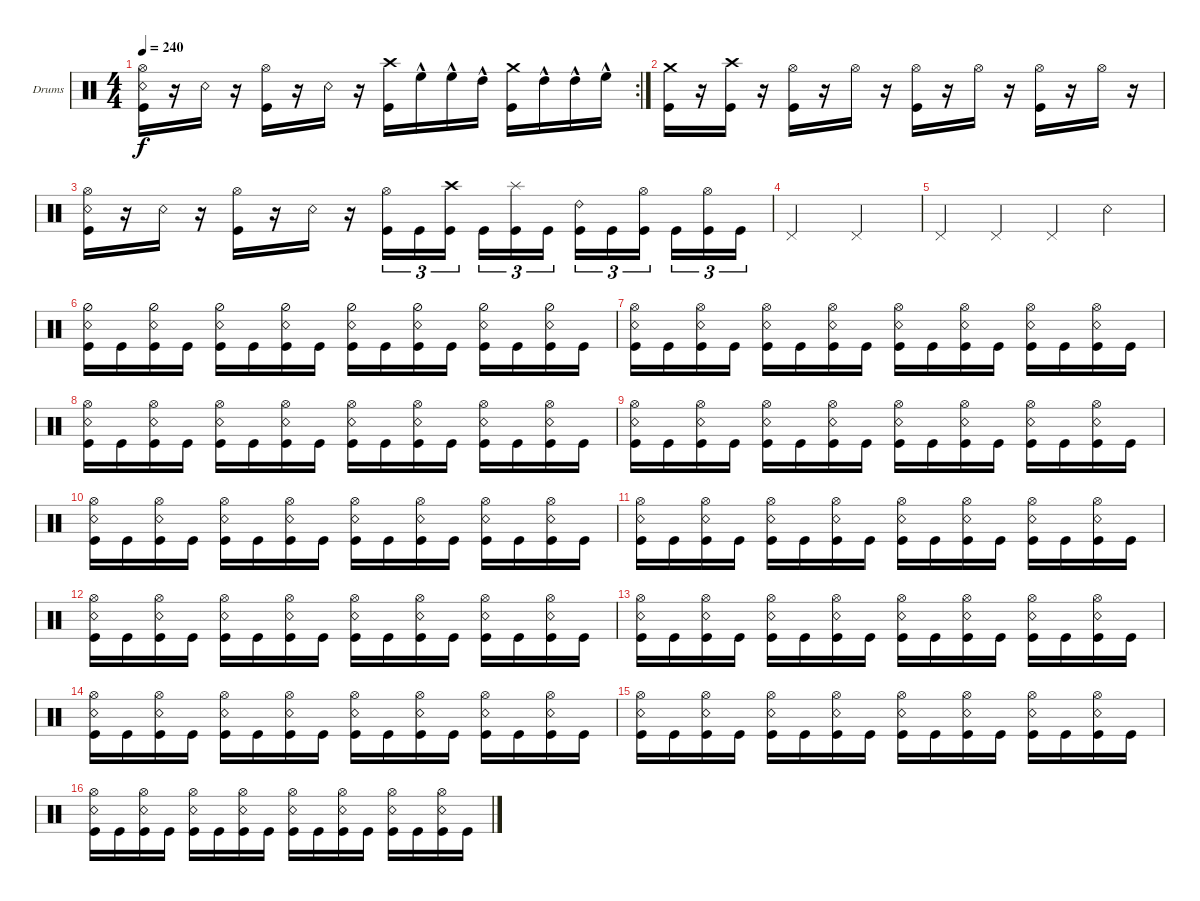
\bracketExtendMode groupsimilarinstruments
\firstSystemTrackNameOrientation horizontal
\otherSystemsTrackNameOrientation horizontal
\track ("Drumkit" "Drums") {instrument percussion}
\staff {score}
\articulation defaults
\rc 2
\ts (4 4)
\tempo 240
\clef neutral
\ks c
("Hi-Hat (open)" "Snare (rim shot)" "Kick (hit)").16{dy f} r.16 "Snare (rim shot)".16 r.16 ("Hi-Hat (open)" "Kick (hit)").16 r.16 "Snare (rim shot)".16 r.16 ("Crash high (hit)" "Kick (hit)").16 "High Floor Tom (hit)"{hac}.16 "High Floor Tom (hit)"{hac}.16 "High Tom (hit)"{hac}.16 ("Crash medium (hit)" "Kick (hit)").16 "High Tom (hit)"{hac}.16 "High Tom (hit)"{hac}.16 "High Floor Tom (hit)"{hac}.16 |
("Crash medium (hit)" "Kick (hit)").16 r.16 ("Crash high (hit)" "Kick (hit)").16 r.16 ("Hi-Hat (open)" "Kick (hit)").16 r.16 "Hi-Hat (open)".16 r.16 ("Hi-Hat (open)" "Kick (hit)").16 r.16 "Hi-Hat (open)".16 r.16 ("Hi-Hat (open)" "Kick (hit)").16 r.16 "Hi-Hat (open)".16 r.16 |
("Hi-Hat (open)" "Snare (rim shot)" "Kick (hit)").16 r.16 "Snare (rim shot)".16 r.16 ("Hi-Hat (open)" "Kick (hit)").16 r.16 "Snare (rim shot)".16 r.16 ("Kick (hit)" "Hi-Hat (open)").16{tu (3 2)} "Kick (hit)".16{tu (3 2)} ("Kick (hit)" "Crash high (hit)").16{tu (3 2)} "Kick (hit)".16{tu (3 2)} ("Kick (hit)" "Splash (hit)").16{tu (3 2)} "Kick (hit)".16{tu (3 2)} ("Kick (hit)" "Ride (bell) 2").16{tu (3 2)} "Kick (hit)".16{tu (3 2)} ("Kick (hit)" "Hi-Hat (open)").16{tu (3 2)} "Kick (hit)".16{tu (3 2)} ("Kick (hit)" "Hi-Hat (open)").16{tu (3 2)} "Kick (hit)".16{tu (3 2)} |
"Pedal Hi-Hat (hit)".2 "Pedal Hi-Hat (hit)".2 |
"Pedal Hi-Hat (hit)".4 "Pedal Hi-Hat (hit)".4 "Pedal Hi-Hat (hit)".4 "Snare (rim shot)".4 |
("Kick (hit)" "Snare (rim shot)" "Hi-Hat (half)").16 "Kick (hit)".16 ("Kick (hit)" "Snare (rim shot)" "Hi-Hat (half)").16 "Kick (hit)".16 ("Kick (hit)" "Snare (rim shot)" "Hi-Hat (half)").16 "Kick (hit)".16 ("Kick (hit)" "Snare (rim shot)" "Hi-Hat (half)").16 "Kick (hit)".16 ("Kick (hit)" "Snare (rim shot)" "Hi-Hat (half)").16 "Kick (hit)".16 ("Kick (hit)" "Snare (rim shot)" "Hi-Hat (half)").16 "Kick (hit)".16 ("Kick (hit)" "Snare (rim shot)" "Hi-Hat (half)").16 "Kick (hit)".16 ("Kick (hit)" "Snare (rim shot)" "Hi-Hat (half)").16 "Kick (hit)".16 |
("Kick (hit)" "Snare (rim shot)" "Hi-Hat (open)").16 "Kick (hit)".16 ("Kick (hit)" "Snare (rim shot)" "Hi-Hat (open)").16 "Kick (hit)".16 ("Kick (hit)" "Snare (rim shot)" "Hi-Hat (open)").16 "Kick (hit)".16 ("Kick (hit)" "Snare (rim shot)" "Hi-Hat (open)").16 "Kick (hit)".16 ("Kick (hit)" "Snare (rim shot)" "Hi-Hat (open)").16 "Kick (hit)".16 ("Kick (hit)" "Snare (rim shot)" "Hi-Hat (open)").16 "Kick (hit)".16 ("Kick (hit)" "Snare (rim shot)" "Hi-Hat (open)").16 "Kick (hit)".16 ("Kick (hit)" "Snare (rim shot)" "Hi-Hat (open)").16 "Kick (hit)".16 |
("Kick (hit)" "Snare (rim shot)" "Hi-Hat (open)").16 "Kick (hit)".16 ("Kick (hit)" "Snare (rim shot)" "Hi-Hat (open)").16 "Kick (hit)".16 ("Kick (hit)" "Snare (rim shot)" "Hi-Hat (open)").16 "Kick (hit)".16 ("Kick (hit)" "Snare (rim shot)" "Hi-Hat (open)").16 "Kick (hit)".16 ("Kick (hit)" "Snare (rim shot)" "Hi-Hat (open)").16 "Kick (hit)".16 ("Kick (hit)" "Snare (rim shot)" "Hi-Hat (open)").16 "Kick (hit)".16 ("Kick (hit)" "Snare (rim shot)" "Hi-Hat (open)").16 "Kick (hit)".16 ("Kick (hit)" "Snare (rim shot)" "Hi-Hat (open)").16 "Kick (hit)".16 |
("Kick (hit)" "Snare (rim shot)" "Hi-Hat (open)").16 "Kick (hit)".16 ("Kick (hit)" "Snare (rim shot)" "Hi-Hat (open)").16 "Kick (hit)".16 ("Kick (hit)" "Snare (rim shot)" "Hi-Hat (open)").16 "Kick (hit)".16 ("Kick (hit)" "Snare (rim shot)" "Hi-Hat (open)").16 "Kick (hit)".16 ("Kick (hit)" "Snare (rim shot)" "Hi-Hat (open)").16 "Kick (hit)".16 ("Kick (hit)" "Snare (rim shot)" "Hi-Hat (open)").16 "Kick (hit)".16 ("Kick (hit)" "Snare (rim shot)" "Hi-Hat (open)").16 "Kick (hit)".16 ("Kick (hit)" "Snare (rim shot)" "Hi-Hat (open)").16 "Kick (hit)".16 |
("Kick (hit)" "Snare (rim shot)" "Hi-Hat (open)").16 "Kick (hit)".16 ("Kick (hit)" "Snare (rim shot)" "Hi-Hat (open)").16 "Kick (hit)".16 ("Kick (hit)" "Snare (rim shot)" "Hi-Hat (open)").16 "Kick (hit)".16 ("Kick (hit)" "Snare (rim shot)" "Hi-Hat (open)").16 "Kick (hit)".16 ("Kick (hit)" "Snare (rim shot)" "Hi-Hat (open)").16 "Kick (hit)".16 ("Kick (hit)" "Snare (rim shot)" "Hi-Hat (open)").16 "Kick (hit)".16 ("Kick (hit)" "Snare (rim shot)" "Hi-Hat (open)").16 "Kick (hit)".16 ("Kick (hit)" "Snare (rim shot)" "Hi-Hat (open)").16 "Kick (hit)".16 |
("Kick (hit)" "Snare (rim shot)" "Hi-Hat (open)").16 "Kick (hit)".16 ("Kick (hit)" "Snare (rim shot)" "Hi-Hat (open)").16 "Kick (hit)".16 ("Kick (hit)" "Snare (rim shot)" "Hi-Hat (open)").16 "Kick (hit)".16 ("Kick (hit)" "Snare (rim shot)" "Hi-Hat (open)").16 "Kick (hit)".16 ("Kick (hit)" "Snare (rim shot)" "Hi-Hat (open)").16 "Kick (hit)".16 ("Kick (hit)" "Snare (rim shot)" "Hi-Hat (open)").16 "Kick (hit)".16 ("Kick (hit)" "Snare (rim shot)" "Hi-Hat (open)").16 "Kick (hit)".16 ("Kick (hit)" "Snare (rim shot)" "Hi-Hat (open)").16 "Kick (hit)".16 |
("Kick (hit)" "Snare (rim shot)" "Hi-Hat (open)").16 "Kick (hit)".16 ("Kick (hit)" "Snare (rim shot)" "Hi-Hat (open)").16 "Kick (hit)".16 ("Kick (hit)" "Snare (rim shot)" "Hi-Hat (open)").16 "Kick (hit)".16 ("Kick (hit)" "Snare (rim shot)" "Hi-Hat (open)").16 "Kick (hit)".16 ("Kick (hit)" "Snare (rim shot)" "Hi-Hat (open)").16 "Kick (hit)".16 ("Kick (hit)" "Snare (rim shot)" "Hi-Hat (open)").16 "Kick (hit)".16 ("Kick (hit)" "Snare (rim shot)" "Hi-Hat (open)").16 "Kick (hit)".16 ("Kick (hit)" "Snare (rim shot)" "Hi-Hat (open)").16 "Kick (hit)".16 |
("Kick (hit)" "Snare (rim shot)" "Hi-Hat (open)").16 "Kick (hit)".16 ("Kick (hit)" "Snare (rim shot)" "Hi-Hat (open)").16 "Kick (hit)".16 ("Kick (hit)" "Snare (rim shot)" "Hi-Hat (open)").16 "Kick (hit)".16 ("Kick (hit)" "Snare (rim shot)" "Hi-Hat (open)").16 "Kick (hit)".16 ("Kick (hit)" "Snare (rim shot)" "Hi-Hat (open)").16 "Kick (hit)".16 ("Kick (hit)" "Snare (rim shot)" "Hi-Hat (open)").16 "Kick (hit)".16 ("Kick (hit)" "Snare (rim shot)" "Hi-Hat (open)").16 "Kick (hit)".16 ("Kick (hit)" "Snare (rim shot)" "Hi-Hat (open)").16 "Kick (hit)".16 |
("Kick (hit)" "Snare (rim shot)" "Hi-Hat (open)").16 "Kick (hit)".16 ("Kick (hit)" "Snare (rim shot)" "Hi-Hat (open)").16 "Kick (hit)".16 ("Kick (hit)" "Snare (rim shot)" "Hi-Hat (open)").16 "Kick (hit)".16 ("Kick (hit)" "Snare (rim shot)" "Hi-Hat (open)").16 "Kick (hit)".16 ("Kick (hit)" "Snare (rim shot)" "Hi-Hat (open)").16 "Kick (hit)".16 ("Kick (hit)" "Snare (rim shot)" "Hi-Hat (open)").16 "Kick (hit)".16 ("Kick (hit)" "Snare (rim shot)" "Hi-Hat (open)").16 "Kick (hit)".16 ("Kick (hit)" "Snare (rim shot)" "Hi-Hat (open)").16 "Kick (hit)".16 |
("Kick (hit)" "Snare (rim shot)" "Hi-Hat (open)").16 "Kick (hit)".16 ("Kick (hit)" "Snare (rim shot)" "Hi-Hat (open)").16 "Kick (hit)".16 ("Kick (hit)" "Snare (rim shot)" "Hi-Hat (open)").16 "Kick (hit)".16 ("Kick (hit)" "Snare (rim shot)" "Hi-Hat (open)").16 "Kick (hit)".16 ("Kick (hit)" "Snare (rim shot)" "Hi-Hat (open)").16 "Kick (hit)".16 ("Kick (hit)" "Snare (rim shot)" "Hi-Hat (open)").16 "Kick (hit)".16 ("Kick (hit)" "Snare (rim shot)" "Hi-Hat (open)").16 "Kick (hit)".16 ("Kick (hit)" "Snare (rim shot)" "Hi-Hat (open)").16 "Kick (hit)".16 |
("Kick (hit)" "Snare (rim shot)" "Hi-Hat (open)").16 "Kick (hit)".16 ("Kick (hit)" "Snare (rim shot)" "Hi-Hat (open)").16 "Kick (hit)".16 ("Kick (hit)" "Snare (rim shot)" "Hi-Hat (open)").16 "Kick (hit)".16 ("Kick (hit)" "Snare (rim shot)" "Hi-Hat (open)").16 "Kick (hit)".16 ("Kick (hit)" "Snare (rim shot)" "Hi-Hat (open)").16 "Kick (hit)".16 ("Kick (hit)" "Snare (rim shot)" "Hi-Hat (open)").16 "Kick (hit)".16 ("Kick (hit)" "Snare (rim shot)" "Hi-Hat (open)").16 "Kick (hit)".16 ("Kick (hit)" "Snare (rim shot)" "Hi-Hat (open)").16 "Kick (hit)".16
